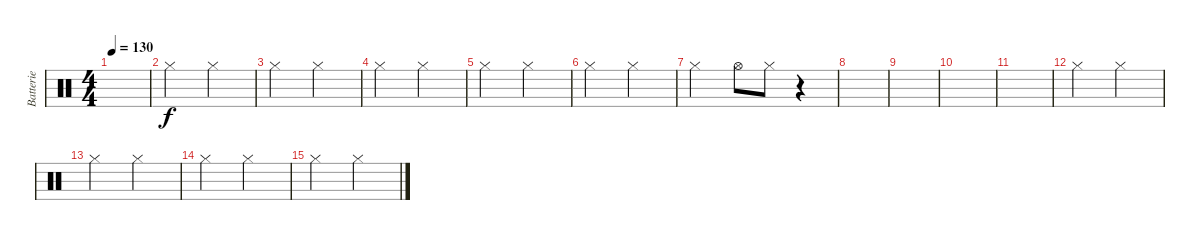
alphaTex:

\track ("Batterie" "Batterie") {instrument percussion}
\staff {score}
\articulation defaults
\ts (4 4)
\tempo 130
\clef neutral
\ks c
|
"Hi-Hat (closed)".2 "Hi-Hat (closed)".2 |
"Hi-Hat (closed)".2 "Hi-Hat (closed)".2 |
"Hi-Hat (closed)".2 "Hi-Hat (closed)".2 |
"Hi-Hat (closed)".2 "Hi-Hat (closed)".2 |
"Hi-Hat (closed)".2 "Hi-Hat (closed)".2 |
"Hi-Hat (closed)".2 "Hi-Hat (open)".8 "Hi-Hat (closed)".8 r.4 |
|
|
|
|
"Hi-Hat (closed)".2 "Hi-Hat (closed)".2 |
"Hi-Hat (closed)".2 "Hi-Hat (closed)".2 |
"Hi-Hat (closed)".2 "Hi-Hat (closed)".2 |
"Hi-Hat (closed)".2 "Hi-Hat (closed)".2
